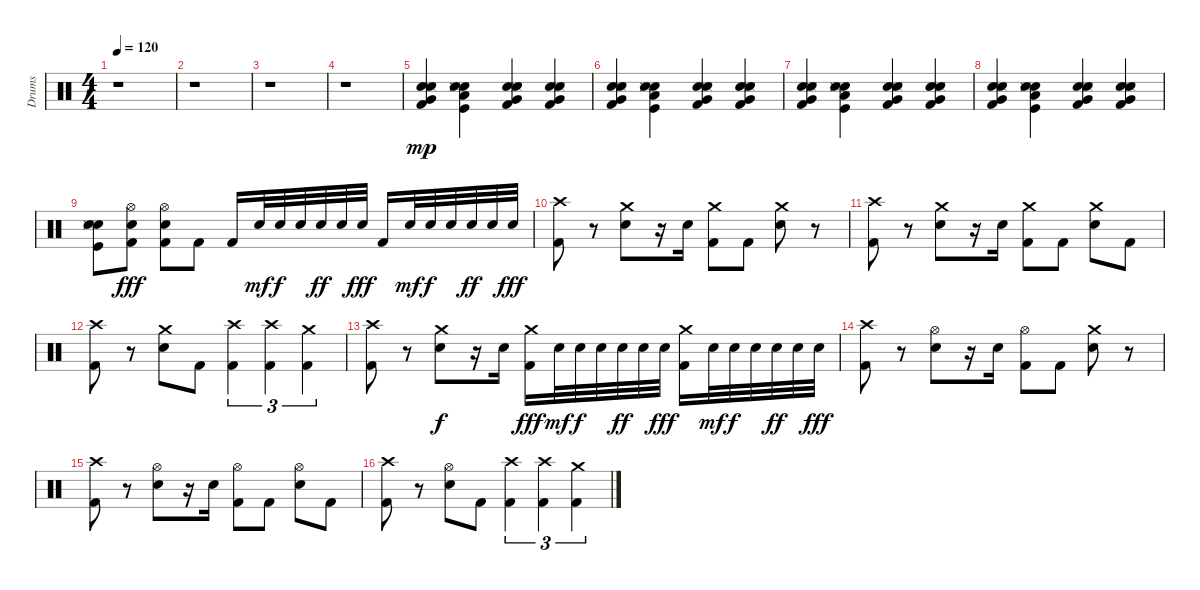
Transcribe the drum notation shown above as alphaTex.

\track ("Drums" "Drums") {instrument percussion}
\staff {score}
\articulation defaults
\ts (4 4)
\tempo 120
\clef neutral
\ks c
r.1{dy mp} |
r.1 |
r.1 |
r.1 |
("Very Low Tom (hit)" "Kick (hit) 2" "Electric Snare (hit)" "Snare (side stick) 3" "Hand Clap (hit)").4 ("Kick (hit)" "Electric Snare (hit)" "Snare (side stick) 3" "Hand Clap (hit)" "Low Floor Tom (hit)").4 ("Very Low Tom (hit)" "Kick (hit) 2" "Electric Snare (hit)" "Snare (side stick) 3" "Hand Clap (hit)").4 ("Very Low Tom (hit)" "Kick (hit) 2" "Electric Snare (hit)" "Snare (side stick) 3" "Hand Clap (hit)").4 |
("Very Low Tom (hit)" "Kick (hit) 2" "Electric Snare (hit)" "Snare (side stick) 3" "Hand Clap (hit)").4 ("Kick (hit)" "Electric Snare (hit)" "Snare (side stick) 3" "Hand Clap (hit)" "Low Floor Tom (hit)").4 ("Very Low Tom (hit)" "Kick (hit) 2" "Electric Snare (hit)" "Snare (side stick) 3" "Hand Clap (hit)").4 ("Very Low Tom (hit)" "Kick (hit) 2" "Electric Snare (hit)" "Snare (side stick) 3" "Hand Clap (hit)").4 |
("Very Low Tom (hit)" "Kick (hit) 2" "Electric Snare (hit)" "Snare (side stick) 3" "Hand Clap (hit)").4 ("Kick (hit)" "Electric Snare (hit)" "Snare (side stick) 3" "Hand Clap (hit)" "Low Floor Tom (hit)").4 ("Very Low Tom (hit)" "Kick (hit) 2" "Electric Snare (hit)" "Snare (side stick) 3" "Hand Clap (hit)").4 ("Very Low Tom (hit)" "Electric Snare (hit)" "Snare (side stick) 3" "Hand Clap (hit)" "Kick (hit) 2").4 |
("Very Low Tom (hit)" "Kick (hit) 2" "Electric Snare (hit)" "Snare (side stick) 3" "Hand Clap (hit)").4 ("Kick (hit)" "Electric Snare (hit)" "Snare (side stick) 3" "Hand Clap (hit)" "Low Floor Tom (hit)").4 ("Very Low Tom (hit)" "Kick (hit) 2" "Electric Snare (hit)" "Snare (side stick) 3" "Hand Clap (hit)").4 ("Very Low Tom (hit)" "Kick (hit) 2" "Electric Snare (hit)" "Snare (side stick) 3" "Hand Clap (hit)").4 |
("Kick (hit)" "Electric Snare (hit)" "Snare (side stick) 3" "Hand Clap (hit)").8 ("Electric Snare (hit)" "Hi-Hat (open)" "Kick (hit) 2").8{dy fff} ("Electric Snare (hit)" "Hi-Hat (open)" "Kick (hit) 2").8 "Kick (hit) 2".8 "Kick (hit) 2".16 "Electric Snare (hit)".32{dy mf} "Electric Snare (hit)".32{dy f} "Electric Snare (hit)".32 "Electric Snare (hit)".32{dy ff} "Electric Snare (hit)".32 "Electric Snare (hit)".32{dy fff} "Kick (hit) 2".16 "Electric Snare (hit)".32{dy mf} "Electric Snare (hit)".32{dy f} "Electric Snare (hit)".32 "Electric Snare (hit)".32{dy ff} "Electric Snare (hit)".32 "Electric Snare (hit)".32{dy fff} |
("Kick (hit) 2" "Crash high (hit)").8 r.8 ("Electric Snare (hit)" "Crash medium (hit)").8 r.16 "Electric Snare (hit)".16 ("Kick (hit) 2" "Crash medium (hit)").8 "Kick (hit) 2".8 ("Electric Snare (hit)" "Crash medium (hit)").8 r.8 |
("Kick (hit) 2" "Crash high (hit)").8 r.8 ("Electric Snare (hit)" "Crash medium (hit)").8 r.16 "Electric Snare (hit)".16 ("Kick (hit) 2" "Crash medium (hit)").8 "Kick (hit) 2".8 ("Electric Snare (hit)" "Crash medium (hit)").8 "Kick (hit) 2".8 |
("Kick (hit) 2" "Crash high (hit)").8 r.8 ("Electric Snare (hit)" "Crash medium (hit)").8 "Kick (hit) 2".8 ("Kick (hit) 2" "Crash high (hit)").4{tu (3 2)} ("Kick (hit) 2" "Crash high (hit)").4{tu (3 2)} ("Crash medium (hit)" "Kick (hit) 2").4{tu (3 2)} |
("Kick (hit) 2" "Crash high (hit)").8 r.8 ("Electric Snare (hit)" "Crash medium (hit)").8{dy f} r.16 "Electric Snare (hit)".16 ("Kick (hit) 2" "Crash medium (hit)").16{dy fff} "Electric Snare (hit)".32{dy mf} "Electric Snare (hit)".32{dy f} "Electric Snare (hit)".32 "Electric Snare (hit)".32{dy ff} "Electric Snare (hit)".32 "Electric Snare (hit)".32{dy fff} ("Kick (hit) 2" "Crash medium (hit)").16 "Electric Snare (hit)".32{dy mf} "Electric Snare (hit)".32{dy f} "Electric Snare (hit)".32 "Electric Snare (hit)".32{dy ff} "Electric Snare (hit)".32 "Electric Snare (hit)".32{dy fff} |
("Crash high (hit)" "Kick (hit) 2").8 r.8 ("Hi-Hat (open)" "Electric Snare (hit)").8 r.16 "Electric Snare (hit)".16 ("Hi-Hat (open)" "Kick (hit) 2").8 "Kick (hit) 2".8 ("Crash medium (hit)" "Electric Snare (hit)").8 r.8 |
("Crash high (hit)" "Kick (hit) 2").8 r.8 ("Hi-Hat (open)" "Electric Snare (hit)").8 r.16 "Electric Snare (hit)".16 ("Hi-Hat (open)" "Kick (hit) 2").8 "Kick (hit) 2".8 ("Hi-Hat (open)" "Electric Snare (hit)").8 "Kick (hit) 2".8 |
("Kick (hit) 2" "Crash high (hit)").8 r.8 ("Electric Snare (hit)" "Hi-Hat (open)").8 "Kick (hit) 2".8 ("Kick (hit) 2" "Crash high (hit)").4{tu (3 2)} ("Kick (hit) 2" "Crash high (hit)").4{tu (3 2)} ("Kick (hit) 2" "Crash medium (hit)").4{tu (3 2)}
